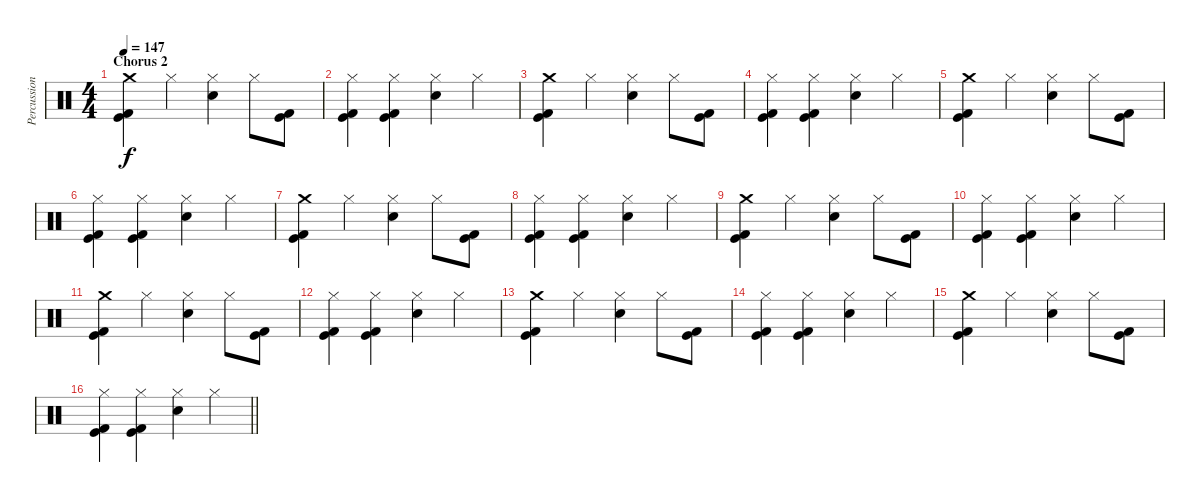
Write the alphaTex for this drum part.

\track ("Percussion" "Percussion") {instrument percussion}
\staff {score}
\articulation defaults
\ts (4 4)
\section ("" "Chorus 2")
\tempo 147
\clef neutral
\ks c
("Crash medium (hit)" "Kick (hit) 2" "Kick (hit)").4{dy f} "Hi-Hat (closed)".4 ("Hi-Hat (closed)" "Snare (hit) 2").4 "Hi-Hat (closed)".8 ("Kick (hit) 2" "Kick (hit)").8 |
("Hi-Hat (closed)" "Kick (hit) 2" "Kick (hit)").4 ("Hi-Hat (closed)" "Kick (hit) 2" "Kick (hit)").4 ("Hi-Hat (closed)" "Snare (hit) 2").4 "Hi-Hat (closed)".4 |
("Crash medium (hit)" "Kick (hit) 2" "Kick (hit)").4 "Hi-Hat (closed)".4 ("Hi-Hat (closed)" "Snare (hit) 2").4 "Hi-Hat (closed)".8 ("Kick (hit) 2" "Kick (hit)").8 |
("Hi-Hat (closed)" "Kick (hit) 2" "Kick (hit)").4 ("Hi-Hat (closed)" "Kick (hit) 2" "Kick (hit)").4 ("Hi-Hat (closed)" "Snare (hit) 2").4 "Hi-Hat (closed)".4 |
("Crash medium (hit)" "Kick (hit) 2" "Kick (hit)").4 "Hi-Hat (closed)".4 ("Hi-Hat (closed)" "Snare (hit) 2").4 "Hi-Hat (closed)".8 ("Kick (hit) 2" "Kick (hit)").8 |
("Hi-Hat (closed)" "Kick (hit) 2" "Kick (hit)").4 ("Hi-Hat (closed)" "Kick (hit) 2" "Kick (hit)").4 ("Hi-Hat (closed)" "Snare (hit) 2").4 "Hi-Hat (closed)".4 |
("Crash medium (hit)" "Kick (hit) 2" "Kick (hit)").4 "Hi-Hat (closed)".4 ("Hi-Hat (closed)" "Snare (hit) 2").4 "Hi-Hat (closed)".8 ("Kick (hit) 2" "Kick (hit)").8 |
("Hi-Hat (closed)" "Kick (hit) 2" "Kick (hit)").4 ("Hi-Hat (closed)" "Kick (hit) 2" "Kick (hit)").4 ("Hi-Hat (closed)" "Snare (hit) 2").4 "Hi-Hat (closed)".4 |
("Crash medium (hit)" "Kick (hit) 2" "Kick (hit)").4 "Hi-Hat (closed)".4 ("Hi-Hat (closed)" "Snare (hit) 2").4 "Hi-Hat (closed)".8 ("Kick (hit) 2" "Kick (hit)").8 |
("Hi-Hat (closed)" "Kick (hit) 2" "Kick (hit)").4 ("Hi-Hat (closed)" "Kick (hit) 2" "Kick (hit)").4 ("Hi-Hat (closed)" "Snare (hit) 2").4 "Hi-Hat (closed)".4 |
("Crash medium (hit)" "Kick (hit) 2" "Kick (hit)").4 "Hi-Hat (closed)".4 ("Hi-Hat (closed)" "Snare (hit) 2").4 "Hi-Hat (closed)".8 ("Kick (hit) 2" "Kick (hit)").8 |
("Hi-Hat (closed)" "Kick (hit) 2" "Kick (hit)").4 ("Hi-Hat (closed)" "Kick (hit) 2" "Kick (hit)").4 ("Hi-Hat (closed)" "Snare (hit) 2").4 "Hi-Hat (closed)".4 |
("Crash medium (hit)" "Kick (hit) 2" "Kick (hit)").4 "Hi-Hat (closed)".4 ("Hi-Hat (closed)" "Snare (hit) 2").4 "Hi-Hat (closed)".8 ("Kick (hit) 2" "Kick (hit)").8 |
("Hi-Hat (closed)" "Kick (hit) 2" "Kick (hit)").4 ("Hi-Hat (closed)" "Kick (hit) 2" "Kick (hit)").4 ("Hi-Hat (closed)" "Snare (hit) 2").4 "Hi-Hat (closed)".4 |
("Crash medium (hit)" "Kick (hit) 2" "Kick (hit)").4 "Hi-Hat (closed)".4 ("Hi-Hat (closed)" "Snare (hit) 2").4 "Hi-Hat (closed)".8 ("Kick (hit) 2" "Kick (hit)").8 |
\barLineRight lightlight
("Hi-Hat (closed)" "Kick (hit) 2" "Kick (hit)").4 ("Hi-Hat (closed)" "Kick (hit) 2" "Kick (hit)").4 ("Hi-Hat (closed)" "Snare (hit) 2").4 "Hi-Hat (closed)".4
